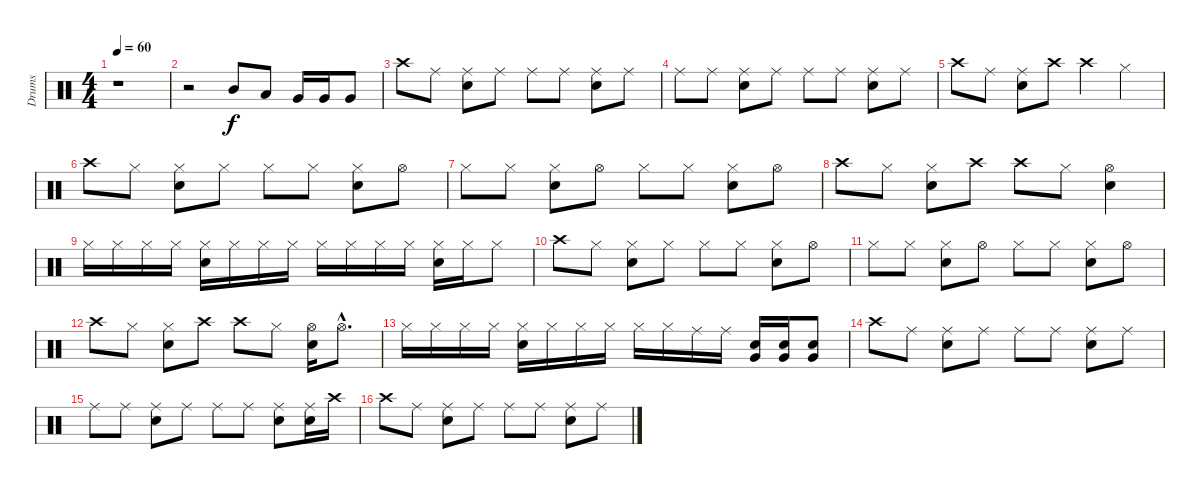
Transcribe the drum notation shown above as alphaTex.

\track ("Drums" "Drums") {instrument percussion}
\staff {score}
\articulation defaults
\ts (4 4)
\tempo 60
\clef neutral
\ks c
r.1{dy f} |
r.2 "Mid Tom (hit)".8 "Low Tom (hit)".8 "Very Low Tom (hit)".16 "Very Low Tom (hit)".16 "Very Low Tom (hit)".8 |
"Crash high (hit)".8 "Ride (middle)".8 ("Snare (hit) 2" "Ride (middle)").8 "Ride (middle)".8 "Ride (middle)".8 "Ride (middle)".8 ("Snare (hit) 2" "Ride (middle)").8 "Ride (middle)".8 |
"Ride (middle)".8 "Ride (middle)".8 ("Snare (hit) 2" "Ride (middle)").8 "Ride (middle)".8 "Ride (middle)".8 "Ride (middle)".8 ("Snare (hit) 2" "Ride (middle)").8 "Ride (middle)".8 |
"Crash high (hit)".8 "Ride (middle)".8 ("Snare (hit) 2" "Ride (middle)").8 "Crash high (hit)".8 "Crash high (hit)".4 "Hi-Hat (closed)".4 |
"Crash high (hit)".8 "Hi-Hat (closed)".8 ("Snare (hit) 2" "Hi-Hat (closed)").8 "Hi-Hat (closed)".8 "Hi-Hat (closed)".8 "Hi-Hat (closed)".8 ("Snare (hit) 2" "Hi-Hat (closed)").8 "Hi-Hat (open)".8 |
"Hi-Hat (closed)".8 "Hi-Hat (closed)".8 ("Snare (hit) 2" "Hi-Hat (closed)").8 "Hi-Hat (open)".8 "Hi-Hat (closed)".8 "Hi-Hat (closed)".8 ("Snare (hit) 2" "Hi-Hat (closed)").8 "Hi-Hat (open)".8 |
"Crash high (hit)".8 "Hi-Hat (closed)".8 ("Snare (hit) 2" "Hi-Hat (closed)").8 "Crash high (hit)".8 "Crash high (hit)".8 "Hi-Hat (closed)".8 ("Hi-Hat (open)" "Snare (hit) 2").4 |
"Hi-Hat (closed)".16 "Hi-Hat (closed)".16 "Hi-Hat (closed)".16 "Hi-Hat (closed)".16 ("Snare (hit) 2" "Hi-Hat (closed)").16 "Hi-Hat (closed)".16 "Hi-Hat (closed)".16 "Hi-Hat (closed)".16 "Hi-Hat (closed)".16 "Hi-Hat (closed)".16 "Hi-Hat (closed)".16 "Hi-Hat (closed)".16 ("Snare (hit) 2" "Hi-Hat (closed)").16 "Hi-Hat (closed)".16 "Hi-Hat (closed)".8 |
"Crash high (hit)".8 "Hi-Hat (closed)".8 ("Snare (hit) 2" "Hi-Hat (closed)").8 "Hi-Hat (closed)".8 "Hi-Hat (closed)".8 "Hi-Hat (closed)".8 ("Snare (hit) 2" "Hi-Hat (closed)").8 "Hi-Hat (open)".8 |
"Hi-Hat (closed)".8 "Hi-Hat (closed)".8 ("Snare (hit) 2" "Hi-Hat (closed)").8 "Hi-Hat (open)".8 "Hi-Hat (closed)".8 "Hi-Hat (closed)".8 ("Snare (hit) 2" "Hi-Hat (closed)").8 "Hi-Hat (open)".8 |
"Crash high (hit)".8 "Hi-Hat (closed)".8 ("Snare (hit) 2" "Hi-Hat (closed)").8 "Crash high (hit)".8 "Crash high (hit)".8 "Hi-Hat (closed)".8 ("Snare (hit) 2" "Hi-Hat (open)").16 "Hi-Hat (open)"{hac}.8{d} |
"Hi-Hat (closed)".16 "Hi-Hat (closed)".16 "Hi-Hat (closed)".16 "Hi-Hat (closed)".16 ("Snare (hit) 2" "Hi-Hat (closed)").16 "Hi-Hat (closed)".16 "Hi-Hat (closed)".16 "Hi-Hat (closed)".16 "Hi-Hat (closed)".16 "Hi-Hat (closed)".16 "Ride (middle)".16 "Ride (middle)".16 ("Very Low Tom (hit)" "Snare (hit) 2").16 ("Very Low Tom (hit)" "Snare (hit) 2").16 ("Very Low Tom (hit)" "Snare (hit) 2").8 |
"Crash high (hit)".8 "Ride (middle)".8 ("Snare (hit) 2" "Ride (middle)").8 "Ride (middle)".8 "Ride (middle)".8 "Ride (middle)".8 ("Snare (hit) 2" "Ride (middle)").8 "Ride (middle)".8 |
"Ride (middle)".8 "Ride (middle)".8 ("Snare (hit) 2" "Ride (middle)").8 "Ride (middle)".8 "Ride (middle)".8 "Ride (middle)".8 ("Snare (hit) 2" "Ride (middle)").8 ("Snare (hit) 2" "Ride (middle)").16 "Crash high (hit)".16 |
"Crash high (hit)".8 "Ride (middle)".8 ("Snare (hit) 2" "Ride (middle)").8 "Ride (middle)".8 "Ride (middle)".8 "Ride (middle)".8 ("Snare (hit) 2" "Ride (middle)").8 "Ride (middle)".8
